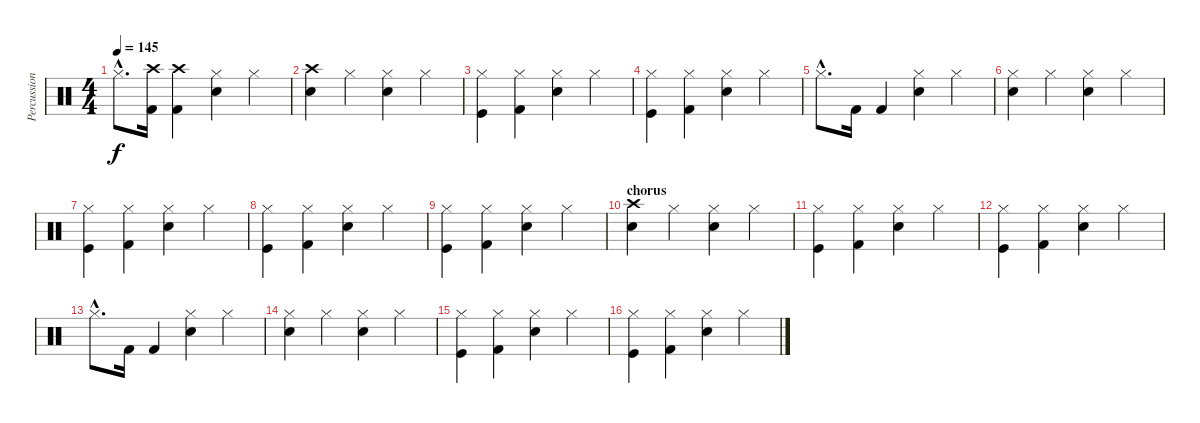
\track ("Percussion" "Percussion") {instrument percussion}
\staff {score}
\articulation defaults
\ts (4 4)
\tempo 145
\clef neutral
\ks c "Hi-Hat (closed)"{hac}.8{d dy f}
("Crash high (hit)" "Kick (hit) 2").16 ("Crash high (hit)" "Kick (hit) 2").4 ("Hi-Hat (closed)" "Snare (hit) 2").4 "Hi-Hat (closed)".4 |
("Crash high (hit)" "Snare (hit) 2").4 "Hi-Hat (closed)".4 ("Hi-Hat (closed)" "Snare (hit) 2").4 "Hi-Hat (closed)".4 |
("Hi-Hat (closed)" "Kick (hit)").4 ("Hi-Hat (closed)" "Kick (hit) 2").4 ("Hi-Hat (closed)" "Snare (hit) 2").4 "Hi-Hat (closed)".4 |
("Hi-Hat (closed)" "Kick (hit)").4 ("Hi-Hat (closed)" "Kick (hit) 2").4 ("Hi-Hat (closed)" "Snare (hit) 2").4 "Hi-Hat (closed)".4 |
"Hi-Hat (closed)"{hac}.8{d} "Kick (hit) 2".16 "Kick (hit) 2".4 ("Hi-Hat (closed)" "Snare (hit) 2").4 "Hi-Hat (closed)".4 |
("Hi-Hat (closed)" "Snare (hit) 2").4 "Hi-Hat (closed)".4 ("Hi-Hat (closed)" "Snare (hit) 2").4 "Hi-Hat (closed)".4 |
("Hi-Hat (closed)" "Kick (hit)").4 ("Hi-Hat (closed)" "Kick (hit) 2").4 ("Hi-Hat (closed)" "Snare (hit) 2").4 "Hi-Hat (closed)".4 |
("Hi-Hat (closed)" "Kick (hit)").4 ("Hi-Hat (closed)" "Kick (hit) 2").4 ("Hi-Hat (closed)" "Snare (hit) 2").4 "Hi-Hat (closed)".4 |
("Hi-Hat (closed)" "Kick (hit)").4 ("Hi-Hat (closed)" "Kick (hit) 2").4 ("Hi-Hat (closed)" "Snare (hit) 2").4 "Hi-Hat (closed)".4 |
\section ("" "chorus")
("Crash high (hit)" "Snare (hit) 2").4 "Hi-Hat (closed)".4 ("Hi-Hat (closed)" "Snare (hit) 2").4 "Hi-Hat (closed)".4 |
("Hi-Hat (closed)" "Kick (hit)").4 ("Hi-Hat (closed)" "Kick (hit) 2").4 ("Hi-Hat (closed)" "Snare (hit) 2").4 "Hi-Hat (closed)".4 |
("Hi-Hat (closed)" "Kick (hit)").4 ("Hi-Hat (closed)" "Kick (hit) 2").4 ("Hi-Hat (closed)" "Snare (hit) 2").4 "Hi-Hat (closed)".4 |
"Hi-Hat (closed)"{hac}.8{d} "Kick (hit) 2".16 "Kick (hit) 2".4 ("Hi-Hat (closed)" "Snare (hit) 2").4 "Hi-Hat (closed)".4 |
("Hi-Hat (closed)" "Snare (hit) 2").4 "Hi-Hat (closed)".4 ("Hi-Hat (closed)" "Snare (hit) 2").4 "Hi-Hat (closed)".4 |
("Hi-Hat (closed)" "Kick (hit)").4 ("Hi-Hat (closed)" "Kick (hit) 2").4 ("Hi-Hat (closed)" "Snare (hit) 2").4 "Hi-Hat (closed)".4 |
("Hi-Hat (closed)" "Kick (hit)").4 ("Hi-Hat (closed)" "Kick (hit) 2").4 ("Hi-Hat (closed)" "Snare (hit) 2").4 "Hi-Hat (closed)".4
